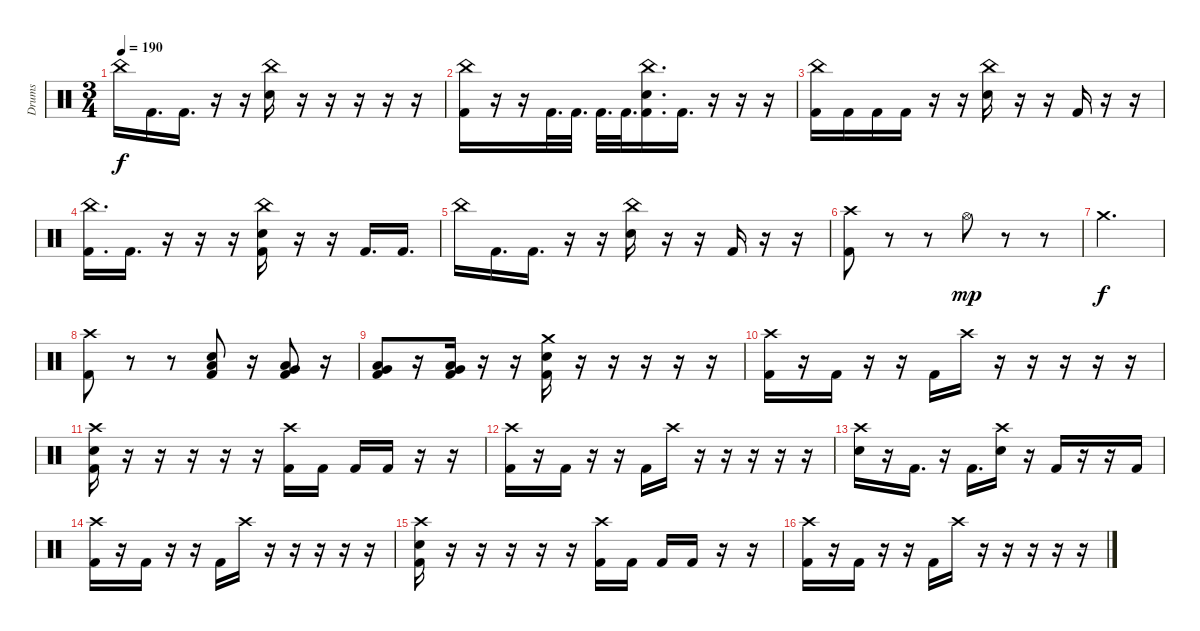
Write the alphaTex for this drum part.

\track ("Drums" "Drums") {instrument percussion}
\staff {score}
\articulation defaults
\ts (3 4)
\tempo 190
\clef neutral
\ks c "China (hit)".16{dy f} "Kick (hit) 2".16{d} "Kick (hit) 2".16{d}
r.16 r.16 ("China (hit)" "Electric Snare (hit)").16 r.16 r.16 r.16 r.16 r.16 |
("China (hit)" "Kick (hit) 2").16 r.16 r.16 "Kick (hit) 2".32{d} "Kick (hit) 2".32{d} "Kick (hit) 2".32{d} "Kick (hit) 2".32{d} ("China (hit)" "Electric Snare (hit)" "Kick (hit) 2").16{d} "Kick (hit) 2".16{d} r.16 r.16 r.16 |
("China (hit)" "Kick (hit) 2").16 "Kick (hit) 2".16 "Kick (hit) 2".16 "Kick (hit) 2".16 r.16 r.16 ("China (hit)" "Electric Snare (hit)").16 r.16 r.16 "Kick (hit) 2".16 r.16 r.16 |
("China (hit)" "Kick (hit) 2").16{d} "Kick (hit) 2".16{d} r.16 r.16 r.16 ("China (hit)" "Electric Snare (hit)" "Kick (hit) 2").16 r.16 r.16 "Kick (hit) 2".16{d} "Kick (hit) 2".16{d} |
"China (hit)".16 "Kick (hit) 2".16{d} "Kick (hit) 2".16{d} r.16 r.16 ("China (hit)" "Electric Snare (hit)").16 r.16 r.16 "Kick (hit) 2".16 r.16 r.16 |
("Crash high (hit)" "Kick (hit) 2").8 r.8 r.8 "Hi-Hat (open)".8{dy mp} r.8 r.8 |
"Crash medium (hit)".2{d dy f} |
("Crash high (hit)" "Kick (hit) 2").8 r.8 r.8 ("Low Floor Tom (hit)" "Electric Snare (hit)" "Kick (hit) 2").8 r.16 ("Very Low Tom (hit)" "Low Floor Tom (hit)" "Kick (hit) 2").8 r.16 |
("Low Tom (hit)" "Very Low Tom (hit)" "Kick (hit) 2").8 r.16 ("Very Low Tom (hit)" "Low Floor Tom (hit)" "Kick (hit) 2").16 r.16 r.16 ("Crash medium (hit)" "Electric Snare (hit)" "Kick (hit) 2").16 r.16 r.16 r.16 r.16 r.16 |
("Crash high (hit)" "Kick (hit) 2").16 r.16 "Kick (hit) 2".16 r.16 r.16 "Kick (hit) 2".16 "Crash high (hit)".16 r.16 r.16 r.16 r.16 r.16 |
("Crash high (hit)" "Electric Snare (hit)" "Kick (hit) 2").16 r.16 r.16 r.16 r.16 r.16 ("Crash high (hit)" "Kick (hit) 2").16 "Kick (hit) 2".16 "Kick (hit) 2".16 "Kick (hit) 2".16 r.16 r.16 |
("Crash high (hit)" "Kick (hit) 2").16 r.16 "Kick (hit) 2".16 r.16 r.16 "Kick (hit) 2".16 "Crash high (hit)".16 r.16 r.16 r.16 r.16 r.16 |
("Crash high (hit)" "Electric Snare (hit)").16 r.16 "Kick (hit) 2".16{d} r.16 "Kick (hit) 2".16{d} ("Crash high (hit)" "Electric Snare (hit)").16 r.16 "Kick (hit) 2".16 r.16 r.16 "Kick (hit) 2".16 |
("Crash high (hit)" "Kick (hit) 2").16 r.16 "Kick (hit) 2".16 r.16 r.16 "Kick (hit) 2".16 "Crash high (hit)".16 r.16 r.16 r.16 r.16 r.16 |
("Crash high (hit)" "Electric Snare (hit)" "Kick (hit) 2").16 r.16 r.16 r.16 r.16 r.16 ("Crash high (hit)" "Kick (hit) 2").16 "Kick (hit) 2".16 "Kick (hit) 2".16 "Kick (hit) 2".16 r.16 r.16 |
("Crash high (hit)" "Kick (hit) 2").16 r.16 "Kick (hit) 2".16 r.16 r.16 "Kick (hit) 2".16 "Crash high (hit)".16 r.16 r.16 r.16 r.16 r.16
